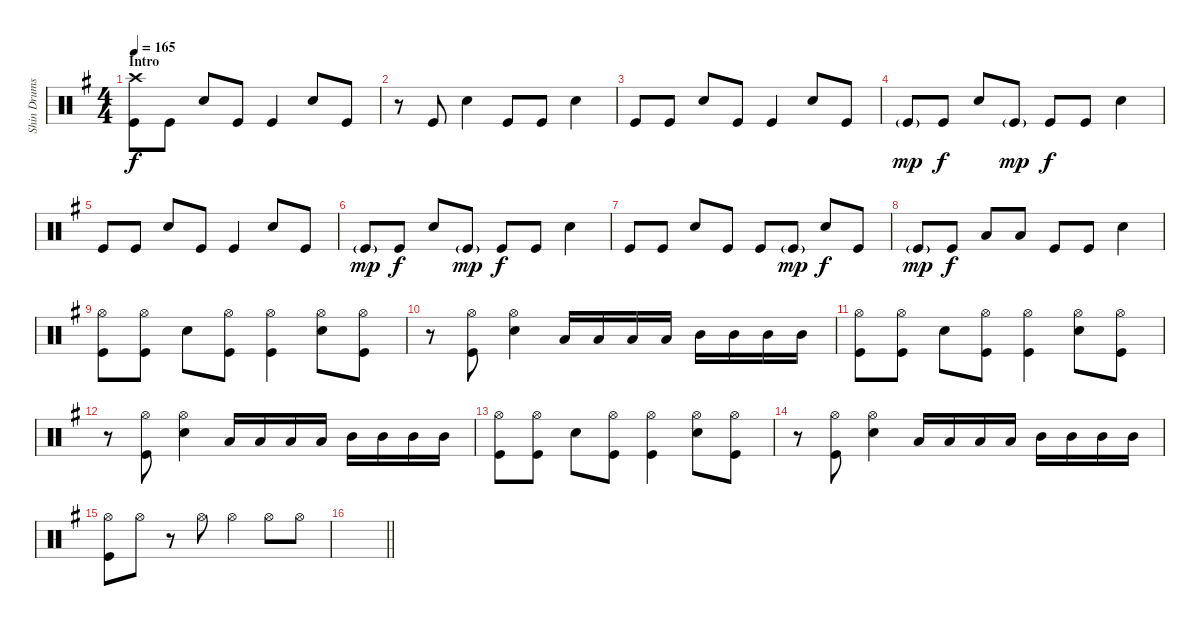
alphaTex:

\track ("Shin Drums" "Shin Drums") {instrument percussion}
\staff {score}
\articulation defaults
\ts (4 4)
\section ("" "Intro")
\tempo 165
\clef neutral
\ks g
("Crash high (hit)" "Kick (hit)").8{dy f} "Kick (hit)".8 "Snare (hit) 2".8 "Kick (hit)".8 "Kick (hit)".4 "Snare (hit) 2".8 "Kick (hit)".8 |
r.8 "Kick (hit)".8 "Snare (hit) 2".4 "Kick (hit)".8 "Kick (hit)".8 "Snare (hit) 2".4 |
"Kick (hit)".8 "Kick (hit)".8 "Snare (hit) 2".8 "Kick (hit)".8 "Kick (hit)".4 "Snare (hit) 2".8 "Kick (hit)".8 |
"Kick (hit)"{g}.8{dy mp} "Kick (hit)".8{dy f} "Snare (hit) 2".8 "Kick (hit)"{g}.8{dy mp} "Kick (hit)".8{dy f} "Kick (hit)".8 "Snare (hit) 2".4 |
"Kick (hit)".8 "Kick (hit)".8 "Snare (hit) 2".8 "Kick (hit)".8 "Kick (hit)".4 "Snare (hit) 2".8 "Kick (hit)".8 |
"Kick (hit)"{g}.8{dy mp} "Kick (hit)".8{dy f} "Snare (hit) 2".8 "Kick (hit)"{g}.8{dy mp} "Kick (hit)".8{dy f} "Kick (hit)".8 "Snare (hit) 2".4 |
"Kick (hit)".8 "Kick (hit)".8 "Snare (hit) 2".8 "Kick (hit)".8 "Kick (hit)".8 "Kick (hit)"{g}.8{dy mp} "Snare (hit) 2".8{dy f} "Kick (hit)".8 |
"Kick (hit)"{g}.8{dy mp} "Kick (hit)".8{dy f} "Low Tom (hit)".8 "Low Tom (hit)".8 "Kick (hit)".8 "Kick (hit)".8 "Snare (hit) 2".4 |
("Hi-Hat (open)" "Kick (hit)").8 ("Hi-Hat (open)" "Kick (hit)").8 "Snare (hit) 2".8 ("Hi-Hat (open)" "Kick (hit)").8 ("Hi-Hat (open)" "Kick (hit)").4 ("Hi-Hat (open)" "Snare (hit) 2").8 ("Hi-Hat (open)" "Kick (hit)").8 |
r.8 ("Hi-Hat (open)" "Kick (hit)").8 ("Hi-Hat (open)" "Snare (hit) 2").4 "Low Tom (hit)".16 "Low Tom (hit)".16 "Low Tom (hit)".16 "Low Tom (hit)".16 "Mid Tom (hit)".16 "Mid Tom (hit)".16 "Mid Tom (hit)".16 "Mid Tom (hit)".16 |
("Hi-Hat (open)" "Kick (hit)").8 ("Hi-Hat (open)" "Kick (hit)").8 "Snare (hit) 2".8 ("Hi-Hat (open)" "Kick (hit)").8 ("Hi-Hat (open)" "Kick (hit)").4 ("Hi-Hat (open)" "Snare (hit) 2").8 ("Hi-Hat (open)" "Kick (hit)").8 |
r.8 ("Hi-Hat (open)" "Kick (hit)").8 ("Hi-Hat (open)" "Snare (hit) 2").4 "Low Tom (hit)".16 "Low Tom (hit)".16 "Low Tom (hit)".16 "Low Tom (hit)".16 "Mid Tom (hit)".16 "Mid Tom (hit)".16 "Mid Tom (hit)".16 "Mid Tom (hit)".16 |
("Hi-Hat (open)" "Kick (hit)").8 ("Hi-Hat (open)" "Kick (hit)").8 "Snare (hit) 2".8 ("Hi-Hat (open)" "Kick (hit)").8 ("Hi-Hat (open)" "Kick (hit)").4 ("Hi-Hat (open)" "Snare (hit) 2").8 ("Hi-Hat (open)" "Kick (hit)").8 |
r.8 ("Hi-Hat (open)" "Kick (hit)").8 ("Hi-Hat (open)" "Snare (hit) 2").4 "Low Tom (hit)".16 "Low Tom (hit)".16 "Low Tom (hit)".16 "Low Tom (hit)".16 "Mid Tom (hit)".16 "Mid Tom (hit)".16 "Mid Tom (hit)".16 "Mid Tom (hit)".16 |
("Hi-Hat (open)" "Kick (hit)").8 "Hi-Hat (open)".8 r.8 "Hi-Hat (open)".8 "Hi-Hat (open)".4 "Hi-Hat (open)".8 "Hi-Hat (open)".8 |
\barLineRight lightlight
